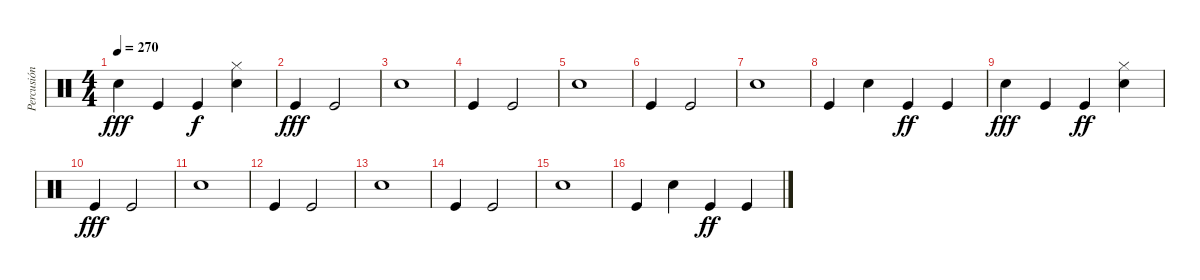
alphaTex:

\track ("Percusión" "Percusión") {instrument percussion}
\staff {score}
\articulation defaults
\ts (4 4)
\tempo 270
\clef neutral
\ks c "Snare (hit) 2".4{dy fff} "Kick (hit)".4 "Kick (hit)".4{dy f}
("Hi-Hat (closed)" "Snare (hit) 2").4 |
"Kick (hit)".4{dy fff} "Kick (hit)".2 |
"Snare (hit) 2".1 |
"Kick (hit)".4 "Kick (hit)".2 |
"Snare (hit) 2".1 |
"Kick (hit)".4 "Kick (hit)".2 |
"Snare (hit) 2".1 |
"Kick (hit)".4 "Snare (hit) 2".4 "Kick (hit)".4{dy ff} "Kick (hit)".4 |
"Snare (hit) 2".4{dy fff} "Kick (hit)".4 "Kick (hit)".4{dy ff} ("Hi-Hat (closed)" "Snare (hit) 2").4 |
"Kick (hit)".4{dy fff} "Kick (hit)".2 |
"Snare (hit) 2".1 |
"Kick (hit)".4 "Kick (hit)".2 |
"Snare (hit) 2".1 |
"Kick (hit)".4 "Kick (hit)".2 |
"Snare (hit) 2".1 |
"Kick (hit)".4 "Snare (hit) 2".4 "Kick (hit)".4{dy ff} "Kick (hit)".4
